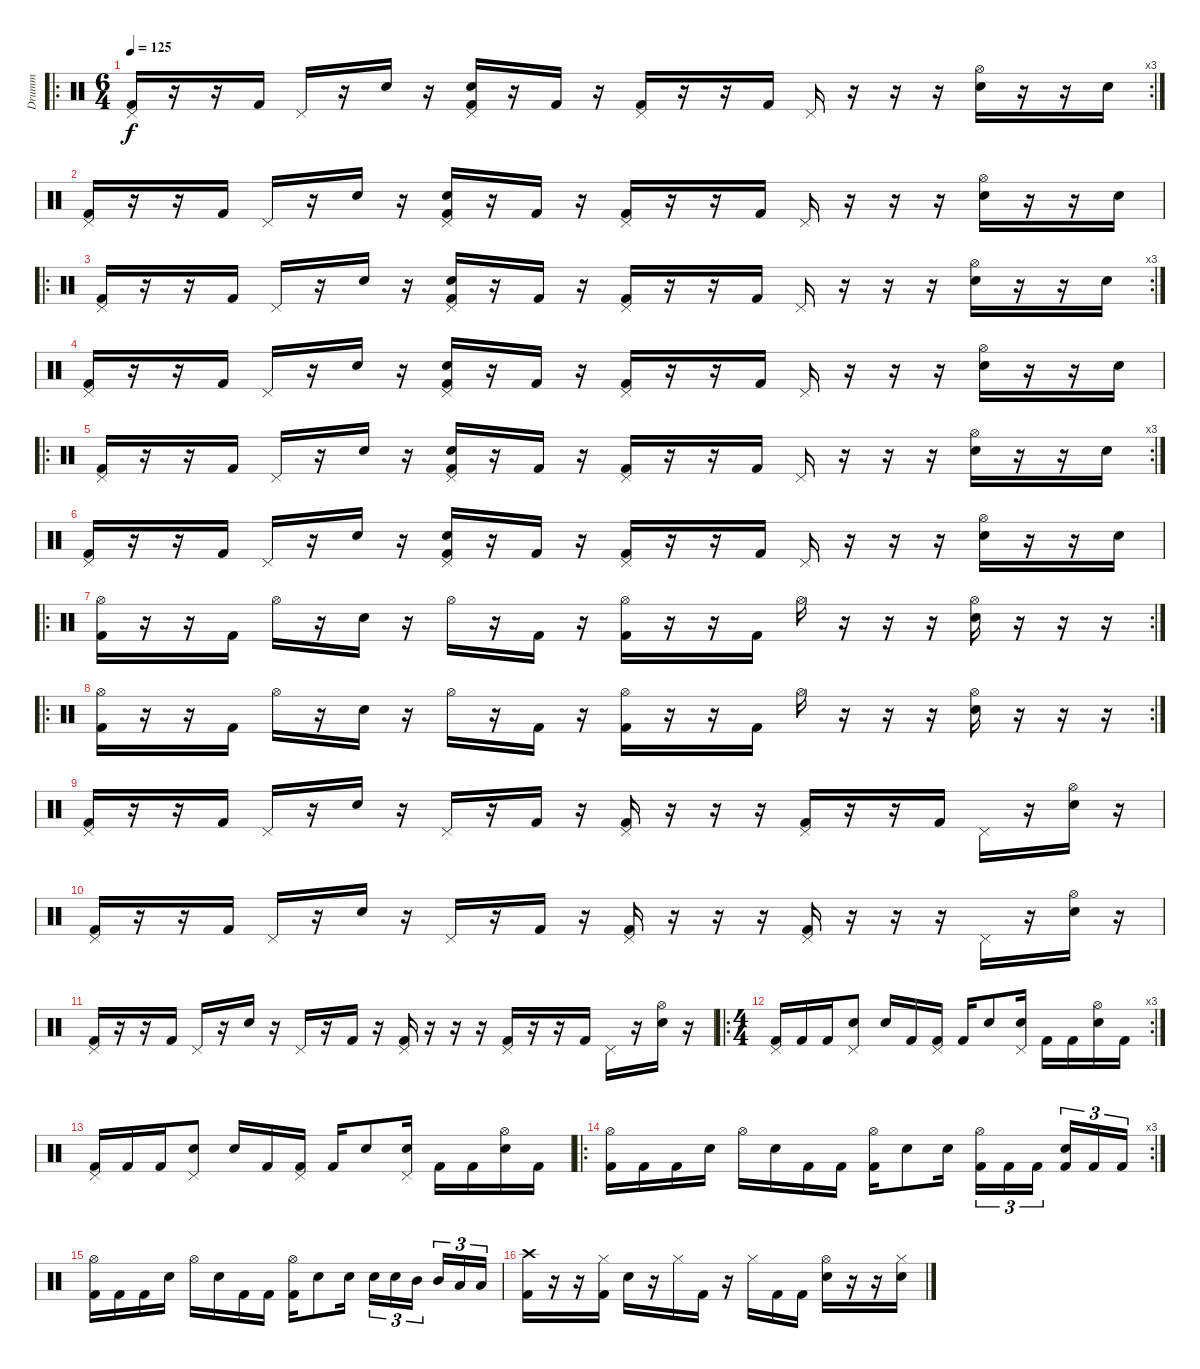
\track ("Drumm" "Drumm") {instrument percussion}
\staff {score}
\articulation defaults
\ro
\rc 3
\ts (6 4)
\tempo 125
\clef neutral
\ks c
("Pedal Hi-Hat (hit)" "Kick (hit) 2").16{dy f} r.16 r.16 "Kick (hit) 2".16 "Pedal Hi-Hat (hit)".16 r.16 "Electric Snare (hit)".16 r.16 ("Pedal Hi-Hat (hit)" "Electric Snare (hit)" "Kick (hit) 2").16 r.16 "Kick (hit) 2".16 r.16 ("Pedal Hi-Hat (hit)" "Kick (hit) 2").16 r.16 r.16 "Kick (hit) 2".16 "Pedal Hi-Hat (hit)".16 r.16 r.16 r.16 ("Hi-Hat (open)" "Electric Snare (hit)").16 r.16 r.16 "Electric Snare (hit)".16 |
("Pedal Hi-Hat (hit)" "Kick (hit) 2").16 r.16 r.16 "Kick (hit) 2".16 "Pedal Hi-Hat (hit)".16 r.16 "Electric Snare (hit)".16 r.16 ("Pedal Hi-Hat (hit)" "Electric Snare (hit)" "Kick (hit) 2").16 r.16 "Kick (hit) 2".16 r.16 ("Pedal Hi-Hat (hit)" "Kick (hit) 2").16 r.16 r.16 "Kick (hit) 2".16 "Pedal Hi-Hat (hit)".16 r.16 r.16 r.16 ("Hi-Hat (open)" "Electric Snare (hit)").16 r.16 r.16 "Electric Snare (hit)".16 |
\ro
\rc 3
("Pedal Hi-Hat (hit)" "Kick (hit) 2").16 r.16 r.16 "Kick (hit) 2".16 "Pedal Hi-Hat (hit)".16 r.16 "Electric Snare (hit)".16 r.16 ("Pedal Hi-Hat (hit)" "Electric Snare (hit)" "Kick (hit) 2").16 r.16 "Kick (hit) 2".16 r.16 ("Pedal Hi-Hat (hit)" "Kick (hit) 2").16 r.16 r.16 "Kick (hit) 2".16 "Pedal Hi-Hat (hit)".16 r.16 r.16 r.16 ("Hi-Hat (open)" "Electric Snare (hit)").16 r.16 r.16 "Electric Snare (hit)".16 |
("Pedal Hi-Hat (hit)" "Kick (hit) 2").16 r.16 r.16 "Kick (hit) 2".16 "Pedal Hi-Hat (hit)".16 r.16 "Electric Snare (hit)".16 r.16 ("Pedal Hi-Hat (hit)" "Electric Snare (hit)" "Kick (hit) 2").16 r.16 "Kick (hit) 2".16 r.16 ("Pedal Hi-Hat (hit)" "Kick (hit) 2").16 r.16 r.16 "Kick (hit) 2".16 "Pedal Hi-Hat (hit)".16 r.16 r.16 r.16 ("Hi-Hat (open)" "Electric Snare (hit)").16 r.16 r.16 "Electric Snare (hit)".16 |
\ro
\rc 3
("Pedal Hi-Hat (hit)" "Kick (hit) 2").16 r.16 r.16 "Kick (hit) 2".16 "Pedal Hi-Hat (hit)".16 r.16 "Electric Snare (hit)".16 r.16 ("Pedal Hi-Hat (hit)" "Electric Snare (hit)" "Kick (hit) 2").16 r.16 "Kick (hit) 2".16 r.16 ("Pedal Hi-Hat (hit)" "Kick (hit) 2").16 r.16 r.16 "Kick (hit) 2".16 "Pedal Hi-Hat (hit)".16 r.16 r.16 r.16 ("Hi-Hat (open)" "Electric Snare (hit)").16 r.16 r.16 "Electric Snare (hit)".16 |
("Pedal Hi-Hat (hit)" "Kick (hit) 2").16 r.16 r.16 "Kick (hit) 2".16 "Pedal Hi-Hat (hit)".16 r.16 "Electric Snare (hit)".16 r.16 ("Pedal Hi-Hat (hit)" "Electric Snare (hit)" "Kick (hit) 2").16 r.16 "Kick (hit) 2".16 r.16 ("Pedal Hi-Hat (hit)" "Kick (hit) 2").16 r.16 r.16 "Kick (hit) 2".16 "Pedal Hi-Hat (hit)".16 r.16 r.16 r.16 ("Hi-Hat (open)" "Electric Snare (hit)").16 r.16 r.16 "Electric Snare (hit)".16 |
\ro
\rc 2
("Hi-Hat (open)" "Kick (hit) 2").16 r.16 r.16 "Kick (hit) 2".16 "Hi-Hat (open)".16 r.16 "Electric Snare (hit)".16 r.16 "Hi-Hat (open)".16 r.16 "Kick (hit) 2".16 r.16 ("Hi-Hat (open)" "Kick (hit) 2").16 r.16 r.16 "Kick (hit) 2".16 "Hi-Hat (open)".16 r.16 r.16 r.16 ("Hi-Hat (open)" "Electric Snare (hit)").16 r.16 r.16 r.16 |
\ro
\rc 2
("Hi-Hat (open)" "Kick (hit) 2").16 r.16 r.16 "Kick (hit) 2".16 "Hi-Hat (open)".16 r.16 "Electric Snare (hit)".16 r.16 "Hi-Hat (open)".16 r.16 "Kick (hit) 2".16 r.16 ("Hi-Hat (open)" "Kick (hit) 2").16 r.16 r.16 "Kick (hit) 2".16 "Hi-Hat (open)".16 r.16 r.16 r.16 ("Hi-Hat (open)" "Electric Snare (hit)").16 r.16 r.16 r.16 |
("Pedal Hi-Hat (hit)" "Kick (hit) 2").16 r.16 r.16 "Kick (hit) 2".16 "Pedal Hi-Hat (hit)".16 r.16 "Electric Snare (hit)".16 r.16 "Pedal Hi-Hat (hit)".16 r.16 "Kick (hit) 2".16 r.16 ("Pedal Hi-Hat (hit)" "Kick (hit) 2").16 r.16 r.16 r.16 ("Pedal Hi-Hat (hit)" "Kick (hit) 2").16 r.16 r.16 "Kick (hit) 2".16 "Pedal Hi-Hat (hit)".16 r.16 ("Hi-Hat (open)" "Electric Snare (hit)").16 r.16 |
("Pedal Hi-Hat (hit)" "Kick (hit) 2").16 r.16 r.16 "Kick (hit) 2".16 "Pedal Hi-Hat (hit)".16 r.16 "Electric Snare (hit)".16 r.16 "Pedal Hi-Hat (hit)".16 r.16 "Kick (hit) 2".16 r.16 ("Pedal Hi-Hat (hit)" "Kick (hit) 2").16 r.16 r.16 r.16 ("Pedal Hi-Hat (hit)" "Kick (hit) 2").16 r.16 r.16 r.16 "Pedal Hi-Hat (hit)".16 r.16 ("Hi-Hat (open)" "Electric Snare (hit)").16 r.16 |
("Pedal Hi-Hat (hit)" "Kick (hit) 2").16 r.16 r.16 "Kick (hit) 2".16 "Pedal Hi-Hat (hit)".16 r.16 "Electric Snare (hit)".16 r.16 "Pedal Hi-Hat (hit)".16 r.16 "Kick (hit) 2".16 r.16 ("Pedal Hi-Hat (hit)" "Kick (hit) 2").16 r.16 r.16 r.16 ("Pedal Hi-Hat (hit)" "Kick (hit) 2").16 r.16 r.16 "Kick (hit) 2".16 "Pedal Hi-Hat (hit)".16 r.16 ("Hi-Hat (open)" "Electric Snare (hit)").16 r.16 |
\ro
\rc 3
\ts (4 4)
("Pedal Hi-Hat (hit)" "Kick (hit) 2").16 "Kick (hit) 2".16 "Kick (hit) 2".16 ("Pedal Hi-Hat (hit)" "Electric Snare (hit)").8 "Electric Snare (hit)".16 "Kick (hit) 2".16 ("Pedal Hi-Hat (hit)" "Kick (hit) 2").16 "Kick (hit) 2".16 "Electric Snare (hit)".8 ("Pedal Hi-Hat (hit)" "Electric Snare (hit)").16 "Kick (hit) 2".16 "Kick (hit) 2".16 ("Hi-Hat (open)" "Electric Snare (hit)").16 "Kick (hit) 2".16 |
("Pedal Hi-Hat (hit)" "Kick (hit) 2").16 "Kick (hit) 2".16 "Kick (hit) 2".16 ("Pedal Hi-Hat (hit)" "Electric Snare (hit)").8 "Electric Snare (hit)".16 "Kick (hit) 2".16 ("Pedal Hi-Hat (hit)" "Kick (hit) 2").16 "Kick (hit) 2".16 "Electric Snare (hit)".8 ("Pedal Hi-Hat (hit)" "Electric Snare (hit)").16 "Kick (hit) 2".16 "Kick (hit) 2".16 ("Hi-Hat (open)" "Electric Snare (hit)").16 "Kick (hit) 2".16 |
\ro
\rc 3
("Hi-Hat (open)" "Kick (hit) 2").16 "Kick (hit) 2".16 "Kick (hit) 2".16 "Electric Snare (hit)".16 "Hi-Hat (open)".16 "Electric Snare (hit)".16 "Kick (hit) 2".16 "Kick (hit) 2".16 ("Hi-Hat (open)" "Kick (hit) 2").16 "Electric Snare (hit)".8 "Electric Snare (hit)".16 ("Hi-Hat (open)" "Kick (hit) 2").16{tu (3 2)} "Kick (hit) 2".16{tu (3 2)} "Kick (hit) 2".16{tu (3 2)} ("Electric Snare (hit)" "Kick (hit) 2").16{tu (3 2)} "Kick (hit) 2".16{tu (3 2)} "Kick (hit) 2".16{tu (3 2)} |
("Hi-Hat (open)" "Kick (hit) 2").16 "Kick (hit) 2".16 "Kick (hit) 2".16 "Electric Snare (hit)".16 "Hi-Hat (open)".16 "Electric Snare (hit)".16 "Kick (hit) 2".16 "Kick (hit) 2".16 ("Hi-Hat (open)" "Kick (hit) 2").16 "Electric Snare (hit)".8 "Electric Snare (hit)".16 "Electric Snare (hit)".16{tu (3 2)} "Electric Snare (hit)".16{tu (3 2)} "Mid Tom (hit)".16{tu (3 2)} "Mid Tom (hit)".16{tu (3 2)} "Low Tom (hit)".16{tu (3 2)} "Low Tom (hit)".16{tu (3 2)} |
("Crash high (hit)" "Kick (hit) 2").16 r.16 r.16 ("Hi-Hat (closed)" "Kick (hit) 2").16 "Electric Snare (hit)".16 r.16 "Hi-Hat (closed)".16 "Kick (hit) 2".16 r.16 "Hi-Hat (closed)".16 "Kick (hit) 2".16 "Kick (hit) 2".16 ("Hi-Hat (open)" "Electric Snare (hit)").16 r.16 r.16 ("Hi-Hat (closed)" "Electric Snare (hit)").16
